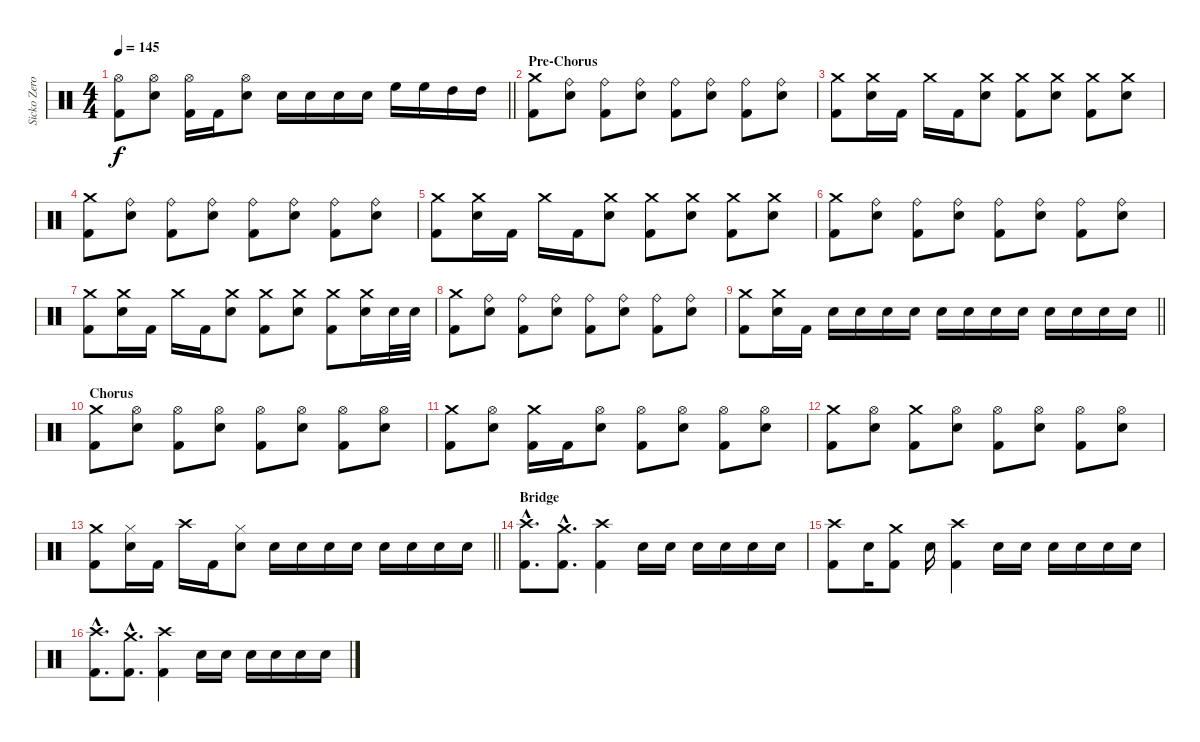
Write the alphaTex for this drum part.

\track ("Sicko Zero - Drums" "Sicko Zero") {instrument percussion}
\staff {score}
\articulation defaults
\ts (4 4)
\tempo 145
\clef neutral
\barLineRight lightlight
\ks c
("Hi-Hat (open)" "Kick (hit) 2").8{dy f} ("Hi-Hat (open)" "Electric Snare (hit)").8 ("Hi-Hat (open)" "Kick (hit) 2").16 "Kick (hit) 2".16 ("Hi-Hat (open)" "Electric Snare (hit)").8 "Electric Snare (hit)".16 "Electric Snare (hit)".16 "Electric Snare (hit)".16 "Electric Snare (hit)".16 "High Floor Tom (hit)".16 "High Floor Tom (hit)".16 "High Tom (hit)".16 "High Tom (hit)".16 |
\section ("" "Pre-Chorus")
("Crash medium (hit)" "Kick (hit) 2").8 ("Ride (bell)" "Electric Snare (hit)").8 ("Ride (bell)" "Kick (hit) 2").8 ("Ride (bell)" "Electric Snare (hit)").8 ("Ride (bell)" "Kick (hit) 2").8 ("Ride (bell)" "Electric Snare (hit)").8 ("Ride (bell)" "Kick (hit) 2").8 ("Ride (bell)" "Electric Snare (hit)").8 |
("Crash medium (hit)" "Kick (hit) 2").8 ("Crash medium (hit)" "Electric Snare (hit)").16 "Kick (hit) 2".16 "Crash medium (hit)".16 "Kick (hit) 2".16 ("Crash medium (hit)" "Electric Snare (hit)").8 ("Crash medium (hit)" "Kick (hit) 2").8 ("Crash medium (hit)" "Electric Snare (hit)").8 ("Crash medium (hit)" "Kick (hit) 2").8 ("Crash medium (hit)" "Electric Snare (hit)").8 |
("Crash medium (hit)" "Kick (hit) 2").8 ("Ride (bell)" "Electric Snare (hit)").8 ("Ride (bell)" "Kick (hit) 2").8 ("Ride (bell)" "Electric Snare (hit)").8 ("Ride (bell)" "Kick (hit) 2").8 ("Ride (bell)" "Electric Snare (hit)").8 ("Ride (bell)" "Kick (hit) 2").8 ("Ride (bell)" "Electric Snare (hit)").8 |
("Crash medium (hit)" "Kick (hit) 2").8 ("Crash medium (hit)" "Electric Snare (hit)").16 "Kick (hit) 2".16 "Crash medium (hit)".16 "Kick (hit) 2".16 ("Crash medium (hit)" "Electric Snare (hit)").8 ("Crash medium (hit)" "Kick (hit) 2").8 ("Crash medium (hit)" "Electric Snare (hit)").8 ("Crash medium (hit)" "Kick (hit) 2").8 ("Crash medium (hit)" "Electric Snare (hit)").8 |
("Crash medium (hit)" "Kick (hit) 2").8 ("Ride (bell)" "Electric Snare (hit)").8 ("Ride (bell)" "Kick (hit) 2").8 ("Ride (bell)" "Electric Snare (hit)").8 ("Ride (bell)" "Kick (hit) 2").8 ("Ride (bell)" "Electric Snare (hit)").8 ("Ride (bell)" "Kick (hit) 2").8 ("Ride (bell)" "Electric Snare (hit)").8 |
("Crash medium (hit)" "Kick (hit) 2").8 ("Crash medium (hit)" "Electric Snare (hit)").16 "Kick (hit) 2".16 "Crash medium (hit)".16 "Kick (hit) 2".16 ("Crash medium (hit)" "Electric Snare (hit)").8 ("Crash medium (hit)" "Kick (hit) 2").8 ("Crash medium (hit)" "Electric Snare (hit)").8 ("Crash medium (hit)" "Kick (hit) 2").8 ("Crash medium (hit)" "Electric Snare (hit)").16 "Electric Snare (hit)".32 "Electric Snare (hit)".32 |
("Crash medium (hit)" "Kick (hit) 2").8 ("Ride (bell)" "Electric Snare (hit)").8 ("Ride (bell)" "Kick (hit) 2").8 ("Ride (bell)" "Electric Snare (hit)").8 ("Ride (bell)" "Kick (hit) 2").8 ("Ride (bell)" "Electric Snare (hit)").8 ("Ride (bell)" "Kick (hit) 2").8 ("Ride (bell)" "Electric Snare (hit)").8 |
\barLineRight lightlight
("Crash medium (hit)" "Kick (hit) 2").8 ("Crash medium (hit)" "Electric Snare (hit)").16 "Kick (hit) 2".16 "Electric Snare (hit)".16 "Electric Snare (hit)".16 "Electric Snare (hit)".16 "Electric Snare (hit)".16 "Electric Snare (hit)".16 "Electric Snare (hit)".16 "Electric Snare (hit)".16 "Electric Snare (hit)".16 "Electric Snare (hit)".16 "Electric Snare (hit)".16 "Electric Snare (hit)".16 "Electric Snare (hit)".16 |
\section ("" "Chorus")
("Crash medium (hit)" "Kick (hit) 2").8 ("Hi-Hat (open)" "Electric Snare (hit)").8 ("Hi-Hat (open)" "Kick (hit) 2").8 ("Hi-Hat (open)" "Electric Snare (hit)").8 ("Hi-Hat (open)" "Kick (hit) 2").8 ("Hi-Hat (open)" "Electric Snare (hit)").8 ("Hi-Hat (open)" "Kick (hit) 2").8 ("Hi-Hat (open)" "Electric Snare (hit)").8 |
("Crash medium (hit)" "Kick (hit) 2").8 ("Hi-Hat (open)" "Electric Snare (hit)").8 ("Crash medium (hit)" "Kick (hit) 2").16 "Kick (hit) 2".16 ("Hi-Hat (open)" "Electric Snare (hit)").8 ("Hi-Hat (open)" "Kick (hit) 2").8 ("Hi-Hat (open)" "Electric Snare (hit)").8 ("Hi-Hat (open)" "Kick (hit) 2").8 ("Hi-Hat (open)" "Electric Snare (hit)").8 |
("Crash medium (hit)" "Kick (hit) 2").8 ("Hi-Hat (open)" "Electric Snare (hit)").8 ("Crash medium (hit)" "Kick (hit) 2").8 ("Hi-Hat (open)" "Electric Snare (hit)").8 ("Hi-Hat (open)" "Kick (hit) 2").8 ("Hi-Hat (open)" "Electric Snare (hit)").8 ("Hi-Hat (open)" "Kick (hit) 2").8 ("Hi-Hat (open)" "Electric Snare (hit)").8 |
\barLineRight lightlight
("Crash medium (hit)" "Kick (hit) 2").8 ("Hi-Hat (closed)" "Electric Snare (hit)").16 "Kick (hit) 2".16 "Crash high (hit)".16 "Kick (hit) 2".16 ("Hi-Hat (closed)" "Electric Snare (hit)").8 "Electric Snare (hit)".16 "Electric Snare (hit)".16 "Electric Snare (hit)".16 "Electric Snare (hit)".16 "Electric Snare (hit)".16 "Electric Snare (hit)".16 "Electric Snare (hit)".16 "Electric Snare (hit)".16 |
\section ("" "Bridge")
("Crash high (hit)"{hac} "Kick (hit) 2"{hac}).8{d} ("Crash medium (hit)"{hac} "Kick (hit) 2"{hac}).8{d} ("Crash high (hit)" "Kick (hit) 2").4 "Electric Snare (hit)".16 "Electric Snare (hit)".16 "Electric Snare (hit)".16 "Electric Snare (hit)".16 "Electric Snare (hit)".16 "Electric Snare (hit)".16 |
("Crash high (hit)" "Kick (hit) 2").8 "Electric Snare (hit)".16 ("Crash medium (hit)" "Kick (hit) 2").8 "Electric Snare (hit)".16 ("Crash high (hit)" "Kick (hit) 2").4 "Electric Snare (hit)".16 "Electric Snare (hit)".16 "Electric Snare (hit)".16 "Electric Snare (hit)".16 "Electric Snare (hit)".16 "Electric Snare (hit)".16 |
("Crash high (hit)"{hac} "Kick (hit) 2"{hac}).8{d} ("Crash medium (hit)"{hac} "Kick (hit) 2"{hac}).8{d} ("Crash high (hit)" "Kick (hit) 2").4 "Electric Snare (hit)".16 "Electric Snare (hit)".16 "Electric Snare (hit)".16 "Electric Snare (hit)".16 "Electric Snare (hit)".16 "Electric Snare (hit)".16
